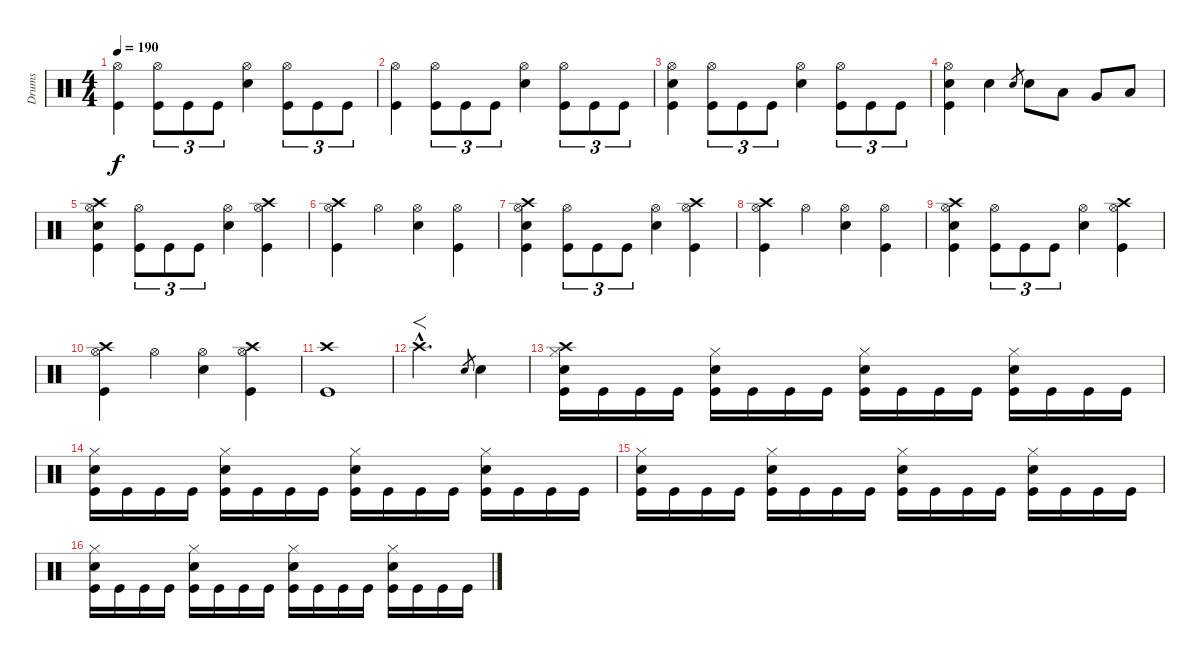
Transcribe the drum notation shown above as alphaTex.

\track ("Drums" "Drums") {instrument percussion}
\staff {score}
\articulation defaults
\ts (4 4)
\tempo 190
\clef neutral
\ks c
("Hi-Hat (open)" "Kick (hit)").4{dy f} ("Hi-Hat (open)" "Kick (hit)").8{tu (3 2)} "Kick (hit)".8{tu (3 2)} "Kick (hit)".8{tu (3 2)} ("Hi-Hat (open)" "Snare (hit) 2").4 ("Hi-Hat (open)" "Kick (hit)").8{tu (3 2)} "Kick (hit)".8{tu (3 2)} "Kick (hit)".8{tu (3 2)} |
("Hi-Hat (open)" "Kick (hit)").4 ("Hi-Hat (open)" "Kick (hit)").8{tu (3 2)} "Kick (hit)".8{tu (3 2)} "Kick (hit)".8{tu (3 2)} ("Hi-Hat (open)" "Snare (hit) 2").4 ("Hi-Hat (open)" "Kick (hit)").8{tu (3 2)} "Kick (hit)".8{tu (3 2)} "Kick (hit)".8{tu (3 2)} |
("Hi-Hat (open)" "Snare (hit) 2" "Kick (hit)").4 ("Hi-Hat (open)" "Kick (hit)").8{tu (3 2)} "Kick (hit)".8{tu (3 2)} "Kick (hit)".8{tu (3 2)} ("Hi-Hat (open)" "Snare (hit) 2").4 ("Hi-Hat (open)" "Kick (hit)").8{tu (3 2)} "Kick (hit)".8{tu (3 2)} "Kick (hit)".8{tu (3 2)} |
("Hi-Hat (open)" "Snare (hit) 2" "Kick (hit)").4 "Snare (hit) 2".4 "Snare (hit) 2".8{gr} "Snare (hit) 2".8 "Low Tom (hit)".8 "Very Low Tom (hit)".8 "Low Floor Tom (hit)".8 |
("Crash high (hit)" "Hi-Hat (open)" "Snare (hit) 2" "Kick (hit)").4 ("Hi-Hat (open)" "Kick (hit)").8{tu (3 2)} "Kick (hit)".8{tu (3 2)} "Kick (hit)".8{tu (3 2)} ("Hi-Hat (open)" "Snare (hit) 2").4 ("Crash high (hit)" "Hi-Hat (open)" "Kick (hit)").4 |
("Crash high (hit)" "Hi-Hat (open)" "Kick (hit)").4 "Hi-Hat (open)".4 ("Hi-Hat (open)" "Snare (hit) 2").4 ("Hi-Hat (open)" "Kick (hit)").4 |
("Crash high (hit)" "Hi-Hat (open)" "Snare (hit) 2" "Kick (hit)").4 ("Hi-Hat (open)" "Kick (hit)").8{tu (3 2)} "Kick (hit)".8{tu (3 2)} "Kick (hit)".8{tu (3 2)} ("Hi-Hat (open)" "Snare (hit) 2").4 ("Crash high (hit)" "Hi-Hat (open)" "Kick (hit)").4 |
("Crash high (hit)" "Hi-Hat (open)" "Kick (hit)").4 "Hi-Hat (open)".4 ("Hi-Hat (open)" "Snare (hit) 2").4 ("Hi-Hat (open)" "Kick (hit)").4 |
("Crash high (hit)" "Hi-Hat (open)" "Snare (hit) 2" "Kick (hit)").4 ("Hi-Hat (open)" "Kick (hit)").8{tu (3 2)} "Kick (hit)".8{tu (3 2)} "Kick (hit)".8{tu (3 2)} ("Hi-Hat (open)" "Snare (hit) 2").4 ("Crash high (hit)" "Hi-Hat (open)" "Kick (hit)").4 |
("Crash high (hit)" "Hi-Hat (open)" "Kick (hit)").4 "Hi-Hat (open)".4 ("Hi-Hat (open)" "Snare (hit) 2").4 ("Crash high (hit)" "Hi-Hat (open)" "Kick (hit)").4 |
("Crash high (hit)" "Kick (hit)").1 |
"Crash high (hit)"{hac}.2{f d} "Snare (hit) 2".8{gr} "Snare (hit) 2".4 |
("Crash high (hit)" "Hi-Hat (closed)" "Snare (hit) 2" "Kick (hit)").16 "Kick (hit)".16 "Kick (hit)".16 "Kick (hit)".16 ("Hi-Hat (closed)" "Snare (hit) 2" "Kick (hit)").16 "Kick (hit)".16 "Kick (hit)".16 "Kick (hit)".16 ("Hi-Hat (closed)" "Snare (hit) 2" "Kick (hit)").16 "Kick (hit)".16 "Kick (hit)".16 "Kick (hit)".16 ("Hi-Hat (closed)" "Snare (hit) 2" "Kick (hit)").16 "Kick (hit)".16 "Kick (hit)".16 "Kick (hit)".16 |
("Hi-Hat (closed)" "Snare (hit) 2" "Kick (hit)").16 "Kick (hit)".16 "Kick (hit)".16 "Kick (hit)".16 ("Hi-Hat (closed)" "Snare (hit) 2" "Kick (hit)").16 "Kick (hit)".16 "Kick (hit)".16 "Kick (hit)".16 ("Hi-Hat (closed)" "Snare (hit) 2" "Kick (hit)").16 "Kick (hit)".16 "Kick (hit)".16 "Kick (hit)".16 ("Hi-Hat (closed)" "Snare (hit) 2" "Kick (hit)").16 "Kick (hit)".16 "Kick (hit)".16 "Kick (hit)".16 |
("Hi-Hat (closed)" "Snare (hit) 2" "Kick (hit)").16 "Kick (hit)".16 "Kick (hit)".16 "Kick (hit)".16 ("Hi-Hat (closed)" "Snare (hit) 2" "Kick (hit)").16 "Kick (hit)".16 "Kick (hit)".16 "Kick (hit)".16 ("Hi-Hat (closed)" "Snare (hit) 2" "Kick (hit)").16 "Kick (hit)".16 "Kick (hit)".16 "Kick (hit)".16 ("Hi-Hat (closed)" "Snare (hit) 2" "Kick (hit)").16 "Kick (hit)".16 "Kick (hit)".16 "Kick (hit)".16 |
("Hi-Hat (closed)" "Snare (hit) 2" "Kick (hit)").16 "Kick (hit)".16 "Kick (hit)".16 "Kick (hit)".16 ("Hi-Hat (closed)" "Snare (hit) 2" "Kick (hit)").16 "Kick (hit)".16 "Kick (hit)".16 "Kick (hit)".16 ("Hi-Hat (closed)" "Snare (hit) 2" "Kick (hit)").16 "Kick (hit)".16 "Kick (hit)".16 "Kick (hit)".16 ("Hi-Hat (closed)" "Snare (hit) 2" "Kick (hit)").16 "Kick (hit)".16 "Kick (hit)".16 "Kick (hit)".16
